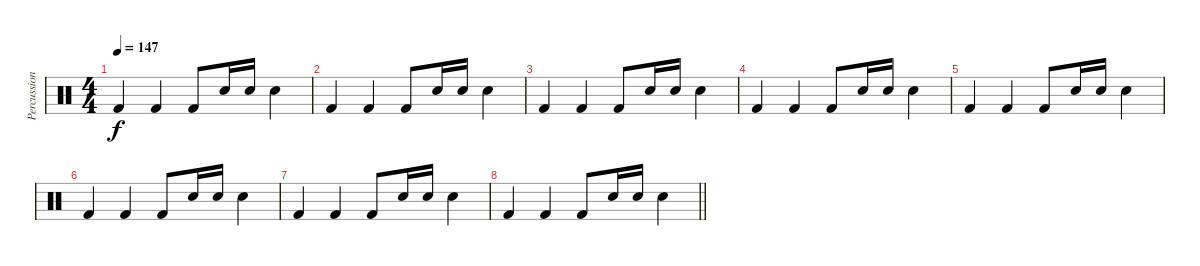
\track ("Percussion" "Percussion") {instrument percussion}
\staff {score}
\articulation defaults
\ts (4 4)
\tempo 147
\clef neutral
\ks c "Kick (hit) 2".4{dy f} "Kick (hit) 2".4 "Kick (hit) 2".8 "Electric Snare (hit)".16 "Electric Snare (hit)".16 "Electric Snare (hit)".4
|
"Kick (hit) 2".4 "Kick (hit) 2".4 "Kick (hit) 2".8 "Electric Snare (hit)".16 "Electric Snare (hit)".16 "Electric Snare (hit)".4 |
"Kick (hit) 2".4 "Kick (hit) 2".4 "Kick (hit) 2".8 "Electric Snare (hit)".16 "Electric Snare (hit)".16 "Electric Snare (hit)".4 |
"Kick (hit) 2".4 "Kick (hit) 2".4 "Kick (hit) 2".8 "Electric Snare (hit)".16 "Electric Snare (hit)".16 "Electric Snare (hit)".4 |
"Kick (hit) 2".4 "Kick (hit) 2".4 "Kick (hit) 2".8 "Electric Snare (hit)".16 "Electric Snare (hit)".16 "Electric Snare (hit)".4 |
"Kick (hit) 2".4 "Kick (hit) 2".4 "Kick (hit) 2".8 "Electric Snare (hit)".16 "Electric Snare (hit)".16 "Electric Snare (hit)".4 |
"Kick (hit) 2".4 "Kick (hit) 2".4 "Kick (hit) 2".8 "Electric Snare (hit)".16 "Electric Snare (hit)".16 "Electric Snare (hit)".4 |
\barLineRight lightlight "Kick (hit) 2".4 "Kick (hit) 2".4 "Kick (hit) 2".8 "Electric Snare (hit)".16 "Electric Snare (hit)".16 "Electric Snare (hit)".4
